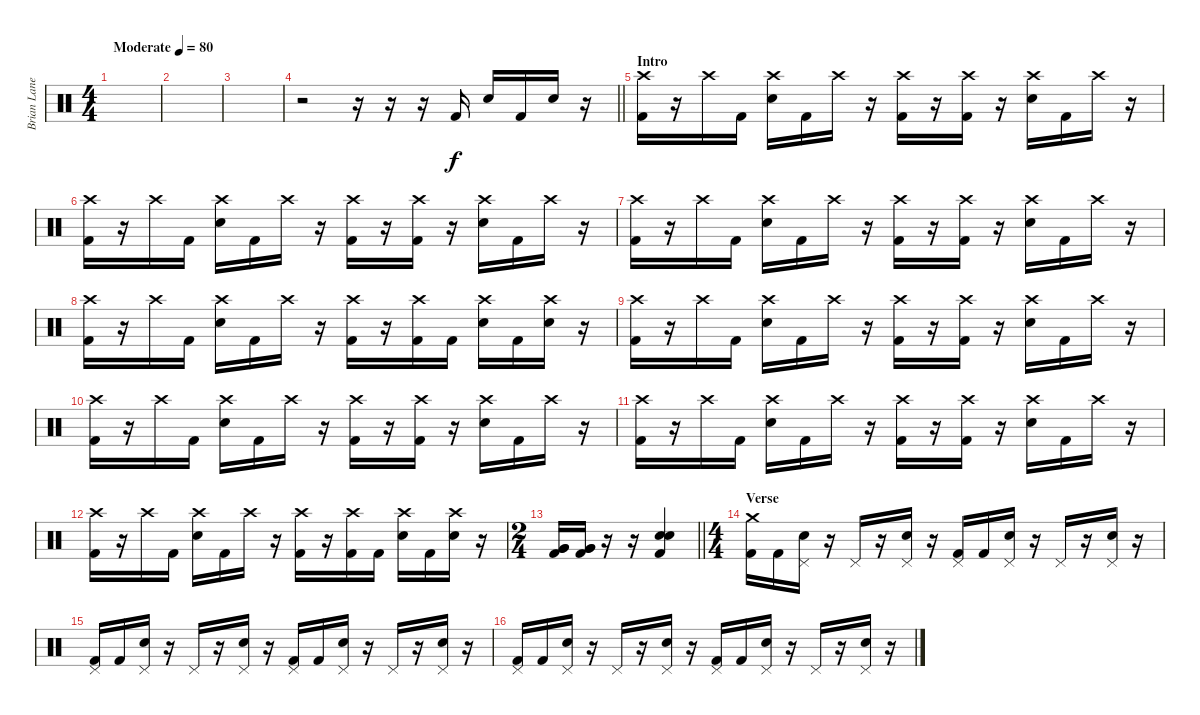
\track ("Brian Lane" "Brian Lane") {instrument percussion}
\staff {score}
\articulation defaults
\ts (4 4)
\tempo (80 "Moderate")
\clef neutral
\ks c
|
|
|
\barLineRight lightlight
r.2 r.16 r.16 r.16 "Kick (hit) 2".16 "Electric Snare (hit)".16 "Kick (hit) 2".16 "Electric Snare (hit)".16 r.16 |
\section ("" "Intro")
("Crash high (hit)" "Kick (hit) 2").16 r.16 "Crash high (hit)".16 "Kick (hit) 2".16 ("Crash high (hit)" "Electric Snare (hit)").16 "Kick (hit) 2".16 "Crash high (hit)".16 r.16 ("Crash high (hit)" "Kick (hit) 2").16 r.16 ("Crash high (hit)" "Kick (hit) 2").16 r.16 ("Crash high (hit)" "Electric Snare (hit)").16 "Kick (hit) 2".16 "Crash high (hit)".16 r.16 |
("Crash high (hit)" "Kick (hit) 2").16 r.16 "Crash high (hit)".16 "Kick (hit) 2".16 ("Crash high (hit)" "Electric Snare (hit)").16 "Kick (hit) 2".16 "Crash high (hit)".16 r.16 ("Crash high (hit)" "Kick (hit) 2").16 r.16 ("Crash high (hit)" "Kick (hit) 2").16 r.16 ("Crash high (hit)" "Electric Snare (hit)").16 "Kick (hit) 2".16 "Crash high (hit)".16 r.16 |
("Crash high (hit)" "Kick (hit) 2").16 r.16 "Crash high (hit)".16 "Kick (hit) 2".16 ("Crash high (hit)" "Electric Snare (hit)").16 "Kick (hit) 2".16 "Crash high (hit)".16 r.16 ("Crash high (hit)" "Kick (hit) 2").16 r.16 ("Crash high (hit)" "Kick (hit) 2").16 r.16 ("Crash high (hit)" "Electric Snare (hit)").16 "Kick (hit) 2".16 "Crash high (hit)".16 r.16 |
("Crash high (hit)" "Kick (hit) 2").16 r.16 "Crash high (hit)".16 "Kick (hit) 2".16 ("Crash high (hit)" "Electric Snare (hit)").16 "Kick (hit) 2".16 "Crash high (hit)".16 r.16 ("Crash high (hit)" "Kick (hit) 2").16 r.16 ("Crash high (hit)" "Kick (hit) 2").16 "Kick (hit) 2".16 ("Crash high (hit)" "Electric Snare (hit)").16 "Kick (hit) 2".16 ("Crash high (hit)" "Electric Snare (hit)").16 r.16 |
("Crash high (hit)" "Kick (hit) 2").16 r.16 "Crash high (hit)".16 "Kick (hit) 2".16 ("Crash high (hit)" "Electric Snare (hit)").16 "Kick (hit) 2".16 "Crash high (hit)".16 r.16 ("Crash high (hit)" "Kick (hit) 2").16 r.16 ("Crash high (hit)" "Kick (hit) 2").16 r.16 ("Crash high (hit)" "Electric Snare (hit)").16 "Kick (hit) 2".16 "Crash high (hit)".16 r.16 |
("Crash high (hit)" "Kick (hit) 2").16 r.16 "Crash high (hit)".16 "Kick (hit) 2".16 ("Crash high (hit)" "Electric Snare (hit)").16 "Kick (hit) 2".16 "Crash high (hit)".16 r.16 ("Crash high (hit)" "Kick (hit) 2").16 r.16 ("Crash high (hit)" "Kick (hit) 2").16 r.16 ("Crash high (hit)" "Electric Snare (hit)").16 "Kick (hit) 2".16 "Crash high (hit)".16 r.16 |
("Crash high (hit)" "Kick (hit) 2").16 r.16 "Crash high (hit)".16 "Kick (hit) 2".16 ("Crash high (hit)" "Electric Snare (hit)").16 "Kick (hit) 2".16 "Crash high (hit)".16 r.16 ("Crash high (hit)" "Kick (hit) 2").16 r.16 ("Crash high (hit)" "Kick (hit) 2").16 r.16 ("Crash high (hit)" "Electric Snare (hit)").16 "Kick (hit) 2".16 "Crash high (hit)".16 r.16 |
("Crash high (hit)" "Kick (hit) 2").16 r.16 "Crash high (hit)".16 "Kick (hit) 2".16 ("Crash high (hit)" "Electric Snare (hit)").16 "Kick (hit) 2".16 "Crash high (hit)".16 r.16 ("Crash high (hit)" "Kick (hit) 2").16 r.16 ("Crash high (hit)" "Kick (hit) 2").16 "Kick (hit) 2".16 ("Crash high (hit)" "Electric Snare (hit)").16 "Kick (hit) 2".16 ("Crash high (hit)" "Electric Snare (hit)").16 r.16 |
\ts (2 4)
\barLineRight lightlight
("Kick (hit) 2" "Very Low Tom (hit)" "Very Low Tom (hit)").16 ("Kick (hit) 2" "Very Low Tom (hit)" "Very Low Tom (hit)").16 r.16 r.16 ("Kick (hit) 2" "Electric Snare (hit)" "Electric Snare (hit)").4 |
\ts (4 4)
\section ("" "Verse")
("Crash medium (hit)" "Kick (hit) 2").16 "Kick (hit) 2".16 ("Pedal Hi-Hat (hit)" "Electric Snare (hit)").16 r.16 "Pedal Hi-Hat (hit)".16 r.16 ("Pedal Hi-Hat (hit)" "Electric Snare (hit)").16 r.16 ("Pedal Hi-Hat (hit)" "Kick (hit) 2").16 "Kick (hit) 2".16 ("Pedal Hi-Hat (hit)" "Electric Snare (hit)").16 r.16 "Pedal Hi-Hat (hit)".16 r.16 ("Pedal Hi-Hat (hit)" "Electric Snare (hit)").16 r.16 |
("Pedal Hi-Hat (hit)" "Kick (hit) 2").16 "Kick (hit) 2".16 ("Pedal Hi-Hat (hit)" "Electric Snare (hit)").16 r.16 "Pedal Hi-Hat (hit)".16 r.16 ("Pedal Hi-Hat (hit)" "Electric Snare (hit)").16 r.16 ("Pedal Hi-Hat (hit)" "Kick (hit) 2").16 "Kick (hit) 2".16 ("Pedal Hi-Hat (hit)" "Electric Snare (hit)").16 r.16 "Pedal Hi-Hat (hit)".16 r.16 ("Pedal Hi-Hat (hit)" "Electric Snare (hit)").16 r.16 |
("Pedal Hi-Hat (hit)" "Kick (hit) 2").16 "Kick (hit) 2".16 ("Pedal Hi-Hat (hit)" "Electric Snare (hit)").16 r.16 "Pedal Hi-Hat (hit)".16 r.16 ("Pedal Hi-Hat (hit)" "Electric Snare (hit)").16 r.16 ("Pedal Hi-Hat (hit)" "Kick (hit) 2").16 "Kick (hit) 2".16 ("Pedal Hi-Hat (hit)" "Electric Snare (hit)").16 r.16 "Pedal Hi-Hat (hit)".16 r.16 ("Pedal Hi-Hat (hit)" "Electric Snare (hit)").16 r.16
